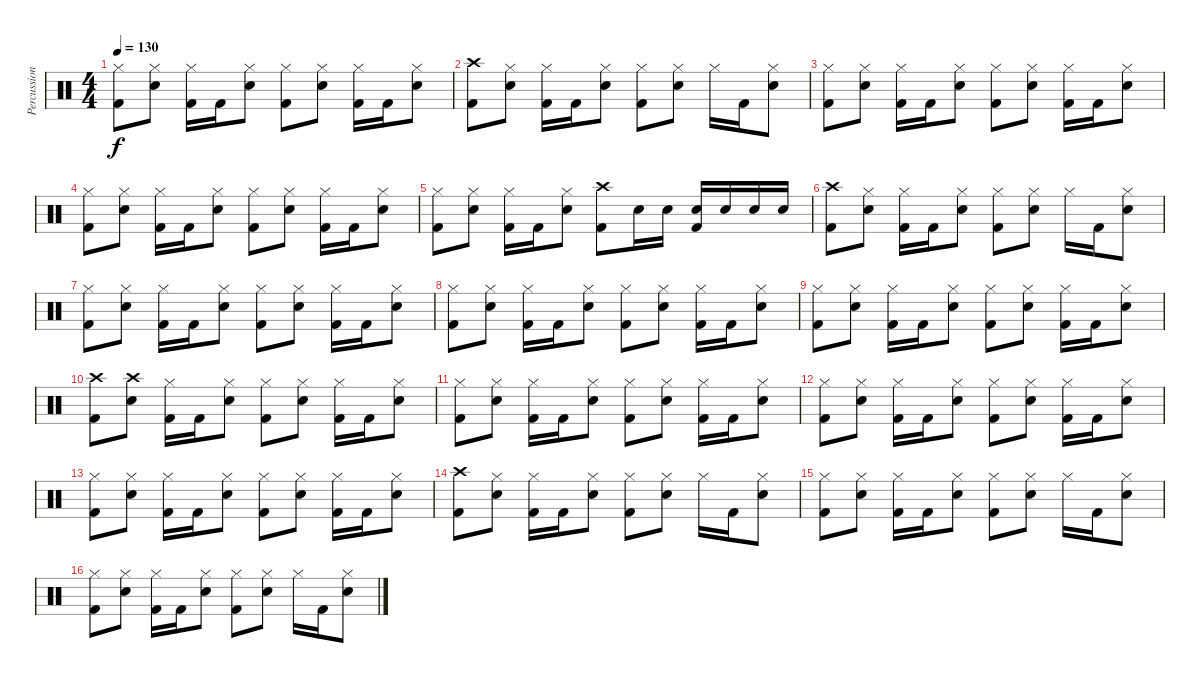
\track ("Percussion" "Percussion") {instrument percussion}
\staff {score}
\articulation defaults
\ts (4 4)
\tempo 130
\clef neutral
\ks c
("Hi-Hat (closed)" "Kick (hit) 2").8{dy f} ("Hi-Hat (closed)" "Electric Snare (hit)").8 ("Hi-Hat (closed)" "Kick (hit) 2").16 "Kick (hit) 2".16 ("Hi-Hat (closed)" "Electric Snare (hit)").8 ("Hi-Hat (closed)" "Kick (hit) 2").8 ("Hi-Hat (closed)" "Electric Snare (hit)").8 ("Hi-Hat (closed)" "Kick (hit) 2").16 "Kick (hit) 2".16 ("Hi-Hat (closed)" "Electric Snare (hit)").8 |
("Crash high (hit)" "Kick (hit) 2").8 ("Hi-Hat (closed)" "Electric Snare (hit)").8 ("Hi-Hat (closed)" "Kick (hit) 2").16 "Kick (hit) 2".16 ("Hi-Hat (closed)" "Electric Snare (hit)").8 ("Hi-Hat (closed)" "Kick (hit) 2").8 ("Hi-Hat (closed)" "Electric Snare (hit)").8 "Hi-Hat (closed)".16 "Kick (hit) 2".16 ("Hi-Hat (closed)" "Electric Snare (hit)").8 |
("Hi-Hat (closed)" "Kick (hit) 2").8 ("Hi-Hat (closed)" "Electric Snare (hit)").8 ("Hi-Hat (closed)" "Kick (hit) 2").16 "Kick (hit) 2".16 ("Hi-Hat (closed)" "Electric Snare (hit)").8 ("Hi-Hat (closed)" "Kick (hit) 2").8 ("Hi-Hat (closed)" "Electric Snare (hit)").8 ("Hi-Hat (closed)" "Kick (hit) 2").16 "Kick (hit) 2".16 ("Hi-Hat (closed)" "Electric Snare (hit)").8 |
("Hi-Hat (closed)" "Kick (hit) 2").8 ("Hi-Hat (closed)" "Electric Snare (hit)").8 ("Hi-Hat (closed)" "Kick (hit) 2").16 "Kick (hit) 2".16 ("Hi-Hat (closed)" "Electric Snare (hit)").8 ("Hi-Hat (closed)" "Kick (hit) 2").8 ("Hi-Hat (closed)" "Electric Snare (hit)").8 ("Hi-Hat (closed)" "Kick (hit) 2").16 "Kick (hit) 2".16 ("Hi-Hat (closed)" "Electric Snare (hit)").8 |
("Hi-Hat (closed)" "Kick (hit) 2").8 ("Hi-Hat (closed)" "Electric Snare (hit)").8 ("Hi-Hat (closed)" "Kick (hit) 2").16 "Kick (hit) 2".16 ("Hi-Hat (closed)" "Electric Snare (hit)").8 ("Crash high (hit)" "Kick (hit) 2").8 "Electric Snare (hit)".16 "Electric Snare (hit)".16 ("Electric Snare (hit)" "Kick (hit) 2").16 "Electric Snare (hit)".16 "Electric Snare (hit)".16 "Electric Snare (hit)".16 |
("Crash high (hit)" "Kick (hit) 2").8 ("Hi-Hat (closed)" "Electric Snare (hit)").8 ("Hi-Hat (closed)" "Kick (hit) 2").16 "Kick (hit) 2".16 ("Hi-Hat (closed)" "Electric Snare (hit)").8 ("Hi-Hat (closed)" "Kick (hit) 2").8 ("Hi-Hat (closed)" "Electric Snare (hit)").8 "Hi-Hat (closed)".16 "Kick (hit) 2".16 ("Hi-Hat (closed)" "Electric Snare (hit)").8 |
("Hi-Hat (closed)" "Kick (hit) 2").8 ("Hi-Hat (closed)" "Electric Snare (hit)").8 ("Hi-Hat (closed)" "Kick (hit) 2").16 "Kick (hit) 2".16 ("Hi-Hat (closed)" "Electric Snare (hit)").8 ("Hi-Hat (closed)" "Kick (hit) 2").8 ("Hi-Hat (closed)" "Electric Snare (hit)").8 ("Hi-Hat (closed)" "Kick (hit) 2").16 "Kick (hit) 2".16 ("Hi-Hat (closed)" "Electric Snare (hit)").8 |
("Hi-Hat (closed)" "Kick (hit) 2").8 ("Hi-Hat (closed)" "Electric Snare (hit)").8 ("Hi-Hat (closed)" "Kick (hit) 2").16 "Kick (hit) 2".16 ("Hi-Hat (closed)" "Electric Snare (hit)").8 ("Hi-Hat (closed)" "Kick (hit) 2").8 ("Hi-Hat (closed)" "Electric Snare (hit)").8 ("Hi-Hat (closed)" "Kick (hit) 2").16 "Kick (hit) 2".16 ("Hi-Hat (closed)" "Electric Snare (hit)").8 |
("Hi-Hat (closed)" "Kick (hit) 2").8 ("Hi-Hat (closed)" "Electric Snare (hit)").8 ("Hi-Hat (closed)" "Kick (hit) 2").16 "Kick (hit) 2".16 ("Hi-Hat (closed)" "Electric Snare (hit)").8 ("Hi-Hat (closed)" "Kick (hit) 2").8 ("Hi-Hat (closed)" "Electric Snare (hit)").8 ("Hi-Hat (closed)" "Kick (hit) 2").16 "Kick (hit) 2".16 ("Hi-Hat (closed)" "Electric Snare (hit)").8 |
("Crash high (hit)" "Kick (hit) 2").8 ("Crash high (hit)" "Electric Snare (hit)").8 ("Hi-Hat (closed)" "Kick (hit) 2").16 "Kick (hit) 2".16 ("Hi-Hat (closed)" "Electric Snare (hit)").8 ("Hi-Hat (closed)" "Kick (hit) 2").8 ("Hi-Hat (closed)" "Electric Snare (hit)").8 ("Hi-Hat (closed)" "Kick (hit) 2").16 "Kick (hit) 2".16 ("Hi-Hat (closed)" "Electric Snare (hit)").8 |
("Hi-Hat (closed)" "Kick (hit) 2").8 ("Hi-Hat (closed)" "Electric Snare (hit)").8 ("Hi-Hat (closed)" "Kick (hit) 2").16 "Kick (hit) 2".16 ("Hi-Hat (closed)" "Electric Snare (hit)").8 ("Hi-Hat (closed)" "Kick (hit) 2").8 ("Hi-Hat (closed)" "Electric Snare (hit)").8 ("Hi-Hat (closed)" "Kick (hit) 2").16 "Kick (hit) 2".16 ("Hi-Hat (closed)" "Electric Snare (hit)").8 |
("Hi-Hat (closed)" "Kick (hit) 2").8 ("Hi-Hat (closed)" "Electric Snare (hit)").8 ("Hi-Hat (closed)" "Kick (hit) 2").16 "Kick (hit) 2".16 ("Hi-Hat (closed)" "Electric Snare (hit)").8 ("Hi-Hat (closed)" "Kick (hit) 2").8 ("Hi-Hat (closed)" "Electric Snare (hit)").8 ("Hi-Hat (closed)" "Kick (hit) 2").16 "Kick (hit) 2".16 ("Hi-Hat (closed)" "Electric Snare (hit)").8 |
("Hi-Hat (closed)" "Kick (hit) 2").8 ("Hi-Hat (closed)" "Electric Snare (hit)").8 ("Hi-Hat (closed)" "Kick (hit) 2").16 "Kick (hit) 2".16 ("Hi-Hat (closed)" "Electric Snare (hit)").8 ("Hi-Hat (closed)" "Kick (hit) 2").8 ("Hi-Hat (closed)" "Electric Snare (hit)").8 ("Hi-Hat (closed)" "Kick (hit) 2").16 "Kick (hit) 2".16 ("Hi-Hat (closed)" "Electric Snare (hit)").8 |
("Crash high (hit)" "Kick (hit) 2").8 ("Hi-Hat (closed)" "Electric Snare (hit)").8 ("Hi-Hat (closed)" "Kick (hit) 2").16 "Kick (hit) 2".16 ("Hi-Hat (closed)" "Electric Snare (hit)").8 ("Hi-Hat (closed)" "Kick (hit) 2").8 ("Hi-Hat (closed)" "Electric Snare (hit)").8 "Hi-Hat (closed)".16 "Kick (hit) 2".16 ("Hi-Hat (closed)" "Electric Snare (hit)").8 |
("Hi-Hat (closed)" "Kick (hit) 2").8 ("Hi-Hat (closed)" "Electric Snare (hit)").8 ("Hi-Hat (closed)" "Kick (hit) 2").16 "Kick (hit) 2".16 ("Hi-Hat (closed)" "Electric Snare (hit)").8 ("Hi-Hat (closed)" "Kick (hit) 2").8 ("Hi-Hat (closed)" "Electric Snare (hit)").8 "Hi-Hat (closed)".16 "Kick (hit) 2".16 ("Hi-Hat (closed)" "Electric Snare (hit)").8 |
("Hi-Hat (closed)" "Kick (hit) 2").8 ("Hi-Hat (closed)" "Electric Snare (hit)").8 ("Hi-Hat (closed)" "Kick (hit) 2").16 "Kick (hit) 2".16 ("Hi-Hat (closed)" "Electric Snare (hit)").8 ("Hi-Hat (closed)" "Kick (hit) 2").8 ("Hi-Hat (closed)" "Electric Snare (hit)").8 "Hi-Hat (closed)".16 "Kick (hit) 2".16 ("Hi-Hat (closed)" "Electric Snare (hit)").8
